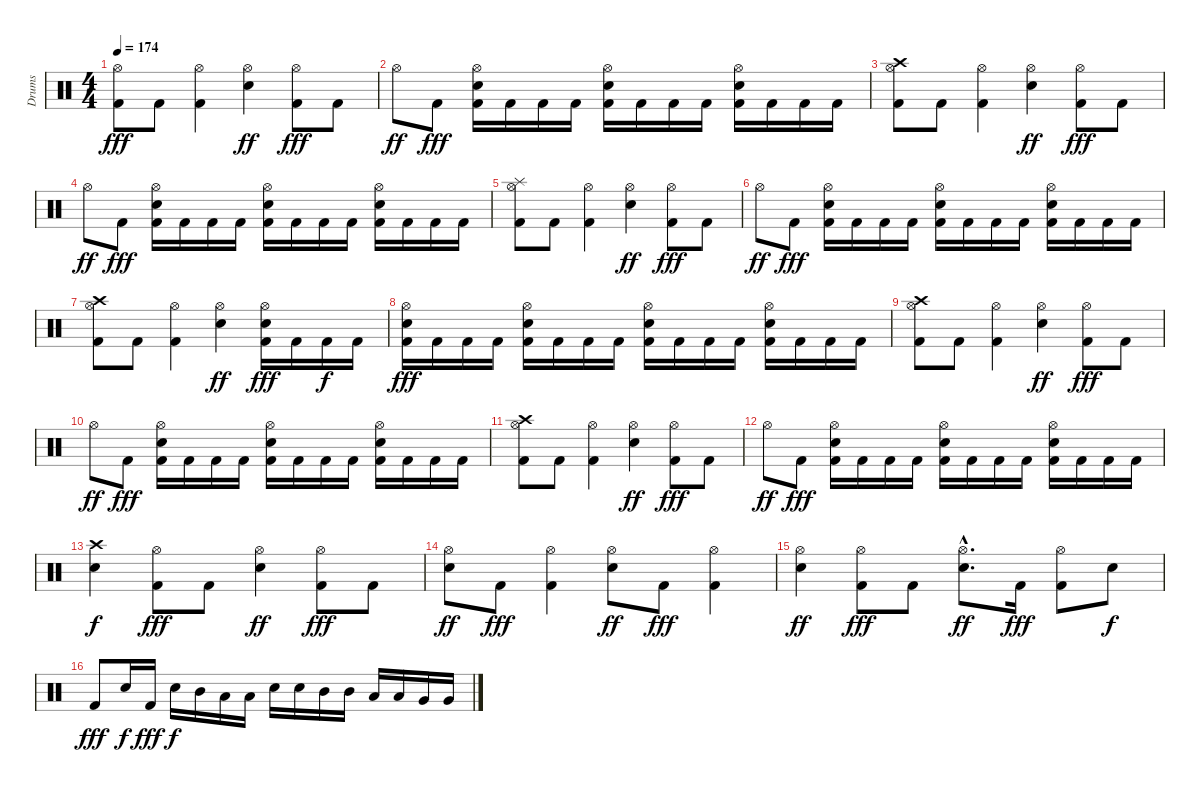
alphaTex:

\track ("Drums" "Drums") {instrument percussion}
\staff {score}
\articulation defaults
\ts (4 4)
\tempo 174
\clef neutral
\ks c
("Hi-Hat (open)" "Kick (hit) 2").8{dy fff} "Kick (hit) 2".8 ("Hi-Hat (open)" "Kick (hit) 2").4 ("Hi-Hat (open)" "Snare (hit) 2").4{dy ff} ("Hi-Hat (open)" "Kick (hit) 2").8{dy fff} "Kick (hit) 2".8 |
"Hi-Hat (open)".8{dy ff} "Kick (hit) 2".8{dy fff} ("Hi-Hat (open)" "Snare (hit) 2" "Kick (hit) 2").16 "Kick (hit) 2".16 "Kick (hit) 2".16 "Kick (hit) 2".16 ("Hi-Hat (open)" "Snare (hit) 2" "Kick (hit) 2").16 "Kick (hit) 2".16 "Kick (hit) 2".16 "Kick (hit) 2".16 ("Hi-Hat (open)" "Snare (hit) 2" "Kick (hit) 2").16 "Kick (hit) 2".16 "Kick (hit) 2".16 "Kick (hit) 2".16 |
("Crash high (hit)" "Hi-Hat (open)" "Kick (hit) 2").8 "Kick (hit) 2".8 ("Hi-Hat (open)" "Kick (hit) 2").4 ("Hi-Hat (open)" "Snare (hit) 2").4{dy ff} ("Hi-Hat (open)" "Kick (hit) 2").8{dy fff} "Kick (hit) 2".8 |
"Hi-Hat (open)".8{dy ff} "Kick (hit) 2".8{dy fff} ("Hi-Hat (open)" "Snare (hit) 2" "Kick (hit) 2").16 "Kick (hit) 2".16 "Kick (hit) 2".16 "Kick (hit) 2".16 ("Hi-Hat (open)" "Snare (hit) 2" "Kick (hit) 2").16 "Kick (hit) 2".16 "Kick (hit) 2".16 "Kick (hit) 2".16 ("Hi-Hat (open)" "Snare (hit) 2" "Kick (hit) 2").16 "Kick (hit) 2".16 "Kick (hit) 2".16 "Kick (hit) 2".16 |
("Splash (hit)" "Hi-Hat (open)" "Kick (hit) 2").8 "Kick (hit) 2".8 ("Hi-Hat (open)" "Kick (hit) 2").4 ("Hi-Hat (open)" "Snare (hit) 2").4{dy ff} ("Hi-Hat (open)" "Kick (hit) 2").8{dy fff} "Kick (hit) 2".8 |
"Hi-Hat (open)".8{dy ff} "Kick (hit) 2".8{dy fff} ("Hi-Hat (open)" "Snare (hit) 2" "Kick (hit) 2").16 "Kick (hit) 2".16 "Kick (hit) 2".16 "Kick (hit) 2".16 ("Hi-Hat (open)" "Snare (hit) 2" "Kick (hit) 2").16 "Kick (hit) 2".16 "Kick (hit) 2".16 "Kick (hit) 2".16 ("Hi-Hat (open)" "Snare (hit) 2" "Kick (hit) 2").16 "Kick (hit) 2".16 "Kick (hit) 2".16 "Kick (hit) 2".16 |
("Crash high (hit)" "Hi-Hat (open)" "Kick (hit) 2").8 "Kick (hit) 2".8 ("Hi-Hat (open)" "Kick (hit) 2").4 ("Hi-Hat (open)" "Snare (hit) 2").4{dy ff} ("Hi-Hat (open)" "Snare (hit) 2" "Kick (hit) 2").16{dy fff} "Kick (hit) 2".16 "Kick (hit) 2".16{dy f} "Kick (hit) 2".16 |
("Hi-Hat (open)" "Snare (hit) 2" "Kick (hit) 2").16{dy fff} "Kick (hit) 2".16 "Kick (hit) 2".16 "Kick (hit) 2".16 ("Hi-Hat (open)" "Snare (hit) 2" "Kick (hit) 2").16 "Kick (hit) 2".16 "Kick (hit) 2".16 "Kick (hit) 2".16 ("Hi-Hat (open)" "Snare (hit) 2" "Kick (hit) 2").16 "Kick (hit) 2".16 "Kick (hit) 2".16 "Kick (hit) 2".16 ("Hi-Hat (open)" "Snare (hit) 2" "Kick (hit) 2").16 "Kick (hit) 2".16 "Kick (hit) 2".16 "Kick (hit) 2".16 |
("Crash high (hit)" "Hi-Hat (open)" "Kick (hit) 2").8 "Kick (hit) 2".8 ("Hi-Hat (open)" "Kick (hit) 2").4 ("Hi-Hat (open)" "Snare (hit) 2").4{dy ff} ("Hi-Hat (open)" "Kick (hit) 2").8{dy fff} "Kick (hit) 2".8 |
"Hi-Hat (open)".8{dy ff} "Kick (hit) 2".8{dy fff} ("Hi-Hat (open)" "Snare (hit) 2" "Kick (hit) 2").16 "Kick (hit) 2".16 "Kick (hit) 2".16 "Kick (hit) 2".16 ("Hi-Hat (open)" "Snare (hit) 2" "Kick (hit) 2").16 "Kick (hit) 2".16 "Kick (hit) 2".16 "Kick (hit) 2".16 ("Hi-Hat (open)" "Snare (hit) 2" "Kick (hit) 2").16 "Kick (hit) 2".16 "Kick (hit) 2".16 "Kick (hit) 2".16 |
("Crash high (hit)" "Hi-Hat (open)" "Kick (hit) 2").8 "Kick (hit) 2".8 ("Hi-Hat (open)" "Kick (hit) 2").4 ("Hi-Hat (open)" "Snare (hit) 2").4{dy ff} ("Hi-Hat (open)" "Kick (hit) 2").8{dy fff} "Kick (hit) 2".8 |
"Hi-Hat (open)".8{dy ff} "Kick (hit) 2".8{dy fff} ("Hi-Hat (open)" "Snare (hit) 2" "Kick (hit) 2").16 "Kick (hit) 2".16 "Kick (hit) 2".16 "Kick (hit) 2".16 ("Hi-Hat (open)" "Snare (hit) 2" "Kick (hit) 2").16 "Kick (hit) 2".16 "Kick (hit) 2".16 "Kick (hit) 2".16 ("Hi-Hat (open)" "Snare (hit) 2" "Kick (hit) 2").16 "Kick (hit) 2".16 "Kick (hit) 2".16 "Kick (hit) 2".16 |
("Crash high (hit)" "Snare (hit) 2").4{dy f} ("Hi-Hat (open)" "Kick (hit) 2").8{dy fff} "Kick (hit) 2".8 ("Hi-Hat (open)" "Snare (hit) 2").4{dy ff} ("Hi-Hat (open)" "Kick (hit) 2").8{dy fff} "Kick (hit) 2".8 |
("Hi-Hat (open)" "Snare (hit) 2").8{dy ff} "Kick (hit) 2".8{dy fff} ("Hi-Hat (open)" "Kick (hit) 2").4 ("Hi-Hat (open)" "Snare (hit) 2").8{dy ff} "Kick (hit) 2".8{dy fff} ("Hi-Hat (open)" "Kick (hit) 2").4 |
("Hi-Hat (open)" "Snare (hit) 2").4{dy ff} ("Hi-Hat (open)" "Kick (hit) 2").8{dy fff} "Kick (hit) 2".8 ("Hi-Hat (open)"{hac} "Snare (hit) 2"{hac}).8{d dy ff} "Kick (hit) 2".16{dy fff} ("Hi-Hat (open)" "Kick (hit) 2").8 "Snare (hit) 2".8{dy f} |
"Kick (hit) 2".8{dy fff} "Snare (hit) 2".16{dy f} "Kick (hit) 2".16{dy fff} "Snare (hit) 2".16{dy f} "Mid Tom (hit)".16 "Low Tom (hit)".16 "Low Tom (hit)".16 "Snare (hit) 2".16 "Snare (hit) 2".16 "Mid Tom (hit)".16 "Mid Tom (hit)".16 "Low Tom (hit)".16 "Low Tom (hit)".16 "Very Low Tom (hit)".16 "Very Low Tom (hit)".16
